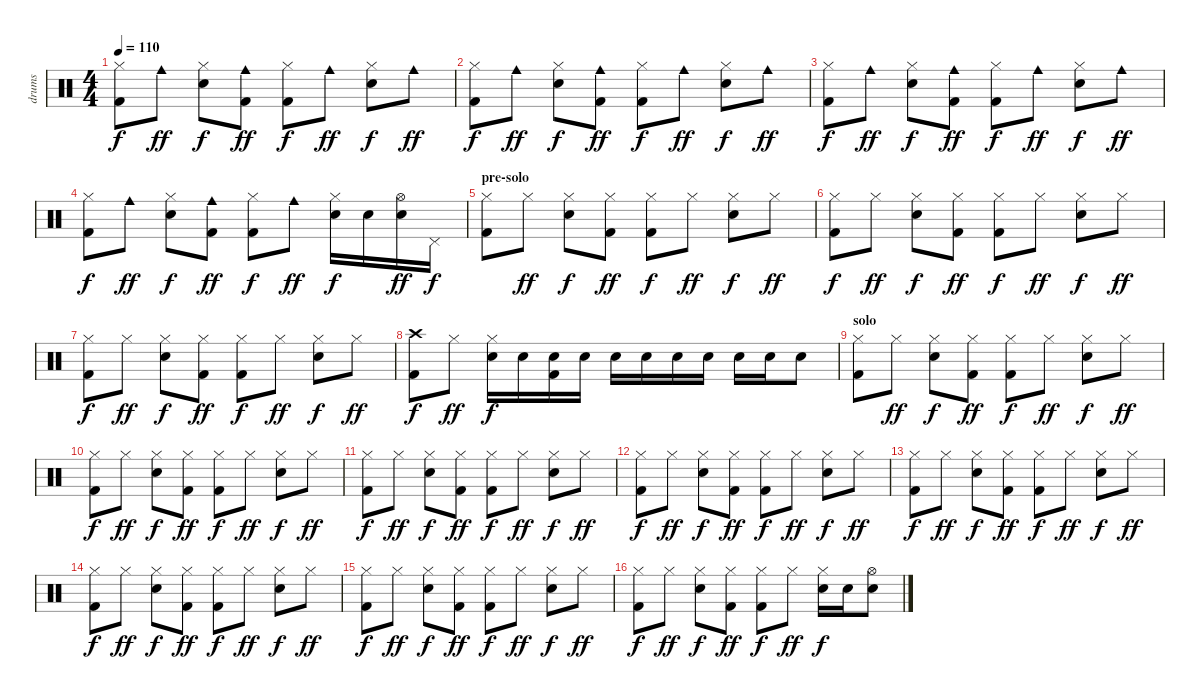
\track ("drums" "drums") {instrument percussion}
\staff {score}
\articulation defaults
\ts (4 4)
\tempo 110
\clef neutral
\ks aminor
("Hi-Hat (closed)" "Kick (hit) 2").8{dy f} "Cowbell medium (hit)".8{dy ff} ("Hi-Hat (closed)" "Snare (hit) 2").8{dy f} ("Cowbell medium (hit)" "Kick (hit) 2").8{dy ff} ("Hi-Hat (closed)" "Kick (hit) 2").8{dy f} "Cowbell medium (hit)".8{dy ff} ("Hi-Hat (closed)" "Snare (hit) 2").8{dy f} "Cowbell medium (hit)".8{dy ff} |
("Hi-Hat (closed)" "Kick (hit) 2").8{dy f} "Cowbell medium (hit)".8{dy ff} ("Hi-Hat (closed)" "Snare (hit) 2").8{dy f} ("Cowbell medium (hit)" "Kick (hit) 2").8{dy ff} ("Hi-Hat (closed)" "Kick (hit) 2").8{dy f} "Cowbell medium (hit)".8{dy ff} ("Hi-Hat (closed)" "Snare (hit) 2").8{dy f} "Cowbell medium (hit)".8{dy ff} |
("Hi-Hat (closed)" "Kick (hit) 2").8{dy f} "Cowbell medium (hit)".8{dy ff} ("Hi-Hat (closed)" "Snare (hit) 2").8{dy f} ("Cowbell medium (hit)" "Kick (hit) 2").8{dy ff} ("Hi-Hat (closed)" "Kick (hit) 2").8{dy f} "Cowbell medium (hit)".8{dy ff} ("Hi-Hat (closed)" "Snare (hit) 2").8{dy f} "Cowbell medium (hit)".8{dy ff} |
("Hi-Hat (closed)" "Kick (hit) 2").8{dy f} "Cowbell medium (hit)".8{dy ff} ("Hi-Hat (closed)" "Snare (hit) 2").8{dy f} ("Cowbell medium (hit)" "Kick (hit) 2").8{dy ff} ("Hi-Hat (closed)" "Kick (hit) 2").8{dy f} "Cowbell medium (hit)".8{dy ff} ("Hi-Hat (closed)" "Snare (hit) 2").16{dy f} "Snare (hit) 2".16 ("Hi-Hat (open)" "Snare (hit) 2").16{dy ff} "Pedal Hi-Hat (hit)".16{dy f} |
\section ("" "pre-solo")
("Hi-Hat (closed)" "Kick (hit) 2").8 "Hi-Hat (closed)".8{dy ff} ("Hi-Hat (closed)" "Snare (hit) 2").8{dy f} ("Hi-Hat (closed)" "Kick (hit) 2").8{dy ff} ("Hi-Hat (closed)" "Kick (hit) 2").8{dy f} "Hi-Hat (closed)".8{dy ff} ("Hi-Hat (closed)" "Snare (hit) 2").8{dy f} "Hi-Hat (closed)".8{dy ff} |
("Hi-Hat (closed)" "Kick (hit) 2").8{dy f} "Hi-Hat (closed)".8{dy ff} ("Hi-Hat (closed)" "Snare (hit) 2").8{dy f} ("Hi-Hat (closed)" "Kick (hit) 2").8{dy ff} ("Hi-Hat (closed)" "Kick (hit) 2").8{dy f} "Hi-Hat (closed)".8{dy ff} ("Hi-Hat (closed)" "Snare (hit) 2").8{dy f} "Hi-Hat (closed)".8{dy ff} |
("Hi-Hat (closed)" "Kick (hit) 2").8{dy f} "Hi-Hat (closed)".8{dy ff} ("Hi-Hat (closed)" "Snare (hit) 2").8{dy f} ("Hi-Hat (closed)" "Kick (hit) 2").8{dy ff} ("Hi-Hat (closed)" "Kick (hit) 2").8{dy f} "Hi-Hat (closed)".8{dy ff} ("Hi-Hat (closed)" "Snare (hit) 2").8{dy f} "Hi-Hat (closed)".8{dy ff} |
("Crash high (hit)" "Kick (hit) 2").8{dy f} "Hi-Hat (closed)".8{dy ff} ("Hi-Hat (closed)" "Snare (hit) 2").16{dy f} "Snare (hit) 2".16 ("Snare (hit) 2" "Kick (hit) 2").16 "Snare (hit) 2".16 "Snare (hit) 2".16 "Snare (hit) 2".16 "Snare (hit) 2".16 "Snare (hit) 2".16 "Snare (hit) 2".16 "Snare (hit) 2".16 "Snare (hit) 2".8 |
\section ("" "solo")
("Hi-Hat (closed)" "Kick (hit) 2").8 "Hi-Hat (closed)".8{dy ff} ("Hi-Hat (closed)" "Snare (hit) 2").8{dy f} ("Hi-Hat (closed)" "Kick (hit) 2").8{dy ff} ("Hi-Hat (closed)" "Kick (hit) 2").8{dy f} "Hi-Hat (closed)".8{dy ff} ("Hi-Hat (closed)" "Snare (hit) 2").8{dy f} "Hi-Hat (closed)".8{dy ff} |
("Hi-Hat (closed)" "Kick (hit) 2").8{dy f} "Hi-Hat (closed)".8{dy ff} ("Hi-Hat (closed)" "Snare (hit) 2").8{dy f} ("Hi-Hat (closed)" "Kick (hit) 2").8{dy ff} ("Hi-Hat (closed)" "Kick (hit) 2").8{dy f} "Hi-Hat (closed)".8{dy ff} ("Hi-Hat (closed)" "Snare (hit) 2").8{dy f} "Hi-Hat (closed)".8{dy ff} |
("Hi-Hat (closed)" "Kick (hit) 2").8{dy f} "Hi-Hat (closed)".8{dy ff} ("Hi-Hat (closed)" "Snare (hit) 2").8{dy f} ("Hi-Hat (closed)" "Kick (hit) 2").8{dy ff} ("Hi-Hat (closed)" "Kick (hit) 2").8{dy f} "Hi-Hat (closed)".8{dy ff} ("Hi-Hat (closed)" "Snare (hit) 2").8{dy f} "Hi-Hat (closed)".8{dy ff} |
("Hi-Hat (closed)" "Kick (hit) 2").8{dy f} "Hi-Hat (closed)".8{dy ff} ("Hi-Hat (closed)" "Snare (hit) 2").8{dy f} ("Hi-Hat (closed)" "Kick (hit) 2").8{dy ff} ("Hi-Hat (closed)" "Kick (hit) 2").8{dy f} "Hi-Hat (closed)".8{dy ff} ("Hi-Hat (closed)" "Snare (hit) 2").8{dy f} "Hi-Hat (closed)".8{dy ff} |
("Hi-Hat (closed)" "Kick (hit) 2").8{dy f} "Hi-Hat (closed)".8{dy ff} ("Hi-Hat (closed)" "Snare (hit) 2").8{dy f} ("Hi-Hat (closed)" "Kick (hit) 2").8{dy ff} ("Hi-Hat (closed)" "Kick (hit) 2").8{dy f} "Hi-Hat (closed)".8{dy ff} ("Hi-Hat (closed)" "Snare (hit) 2").8{dy f} "Hi-Hat (closed)".8{dy ff} |
("Hi-Hat (closed)" "Kick (hit) 2").8{dy f} "Hi-Hat (closed)".8{dy ff} ("Hi-Hat (closed)" "Snare (hit) 2").8{dy f} ("Hi-Hat (closed)" "Kick (hit) 2").8{dy ff} ("Hi-Hat (closed)" "Kick (hit) 2").8{dy f} "Hi-Hat (closed)".8{dy ff} ("Hi-Hat (closed)" "Snare (hit) 2").8{dy f} "Hi-Hat (closed)".8{dy ff} |
("Hi-Hat (closed)" "Kick (hit) 2").8{dy f} "Hi-Hat (closed)".8{dy ff} ("Hi-Hat (closed)" "Snare (hit) 2").8{dy f} ("Hi-Hat (closed)" "Kick (hit) 2").8{dy ff} ("Hi-Hat (closed)" "Kick (hit) 2").8{dy f} "Hi-Hat (closed)".8{dy ff} ("Hi-Hat (closed)" "Snare (hit) 2").8{dy f} "Hi-Hat (closed)".8{dy ff} |
("Hi-Hat (closed)" "Kick (hit) 2").8{dy f} "Hi-Hat (closed)".8{dy ff} ("Hi-Hat (closed)" "Snare (hit) 2").8{dy f} ("Hi-Hat (closed)" "Kick (hit) 2").8{dy ff} ("Hi-Hat (closed)" "Kick (hit) 2").8{dy f} "Hi-Hat (closed)".8{dy ff} ("Hi-Hat (closed)" "Snare (hit) 2").16{dy f} "Snare (hit) 2".16 ("Hi-Hat (open)" "Snare (hit) 2").8
